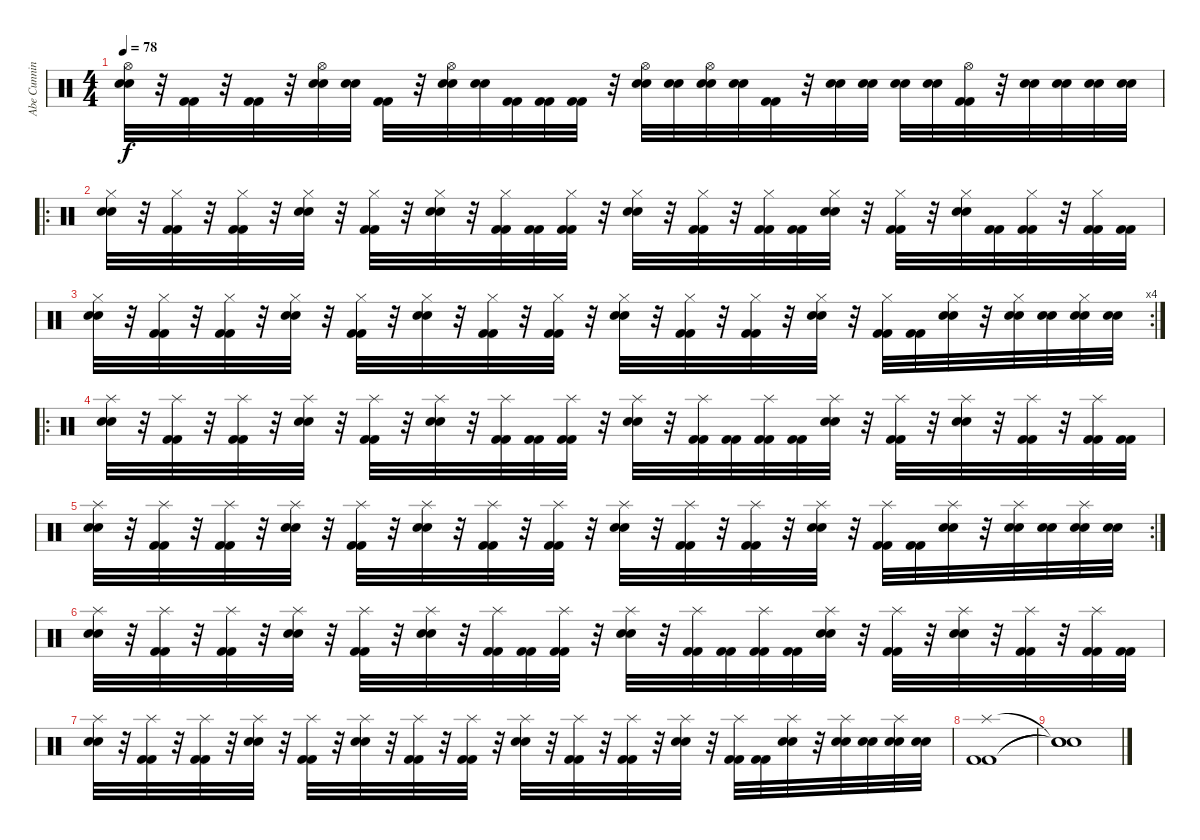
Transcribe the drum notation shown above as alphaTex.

\track ("Abe Cunningham" "Abe Cunnin") {instrument percussion}
\staff {score}
\articulation defaults
\ts (4 4)
\tempo 78
\clef neutral
\ks c
("Hi-Hat (open)" "Electric Snare (hit)" "Electric Snare (hit)").32{dy f} r.32 ("Kick (hit) 2" "Kick (hit) 2").32 r.32 ("Kick (hit) 2" "Kick (hit) 2").32 r.32 ("Hi-Hat (open)" "Electric Snare (hit)" "Electric Snare (hit)").32 ("Electric Snare (hit)" "Electric Snare (hit)").32 ("Kick (hit) 2" "Kick (hit) 2").32 r.32 ("Hi-Hat (open)" "Electric Snare (hit)" "Electric Snare (hit)").32 ("Electric Snare (hit)" "Electric Snare (hit)").32 ("Kick (hit) 2" "Kick (hit) 2").32 ("Kick (hit) 2" "Kick (hit) 2").32 ("Kick (hit) 2" "Kick (hit) 2").32 r.32 ("Hi-Hat (open)" "Electric Snare (hit)" "Electric Snare (hit)").32 ("Electric Snare (hit)" "Electric Snare (hit)").32 ("Hi-Hat (open)" "Electric Snare (hit)" "Electric Snare (hit)").32 ("Electric Snare (hit)" "Electric Snare (hit)").32 ("Kick (hit) 2" "Kick (hit) 2").32 r.32 ("Electric Snare (hit)" "Electric Snare (hit)").32 ("Electric Snare (hit)" "Electric Snare (hit)").32 ("Electric Snare (hit)" "Electric Snare (hit)").32 ("Electric Snare (hit)" "Electric Snare (hit)").32 ("Hi-Hat (open)" "Kick (hit) 2" "Kick (hit) 2").32 r.32 ("Electric Snare (hit)" "Electric Snare (hit)").32 ("Electric Snare (hit)" "Electric Snare (hit)").32 ("Electric Snare (hit)" "Electric Snare (hit)").32 ("Electric Snare (hit)" "Electric Snare (hit)").32 |
\ro
("Hi-Hat (closed)" "Electric Snare (hit)" "Electric Snare (hit)").32 r.32 ("Hi-Hat (closed)" "Kick (hit) 2" "Kick (hit) 2").32 r.32 ("Hi-Hat (closed)" "Kick (hit) 2" "Kick (hit) 2").32 r.32 ("Hi-Hat (closed)" "Electric Snare (hit)" "Electric Snare (hit)").32 r.32 ("Hi-Hat (closed)" "Kick (hit) 2" "Kick (hit) 2").32 r.32 ("Hi-Hat (closed)" "Electric Snare (hit)" "Electric Snare (hit)").32 r.32 ("Hi-Hat (closed)" "Kick (hit) 2" "Kick (hit) 2").32 ("Kick (hit) 2" "Kick (hit) 2").32 ("Hi-Hat (closed)" "Kick (hit) 2" "Kick (hit) 2").32 r.32 ("Hi-Hat (closed)" "Electric Snare (hit)" "Electric Snare (hit)").32 r.32 ("Hi-Hat (closed)" "Kick (hit) 2" "Kick (hit) 2").32 r.32 ("Hi-Hat (closed)" "Kick (hit) 2" "Kick (hit) 2").32 ("Kick (hit) 2" "Kick (hit) 2").32 ("Hi-Hat (closed)" "Electric Snare (hit)" "Electric Snare (hit)").32 r.32 ("Hi-Hat (closed)" "Kick (hit) 2" "Kick (hit) 2").32 r.32 ("Hi-Hat (closed)" "Electric Snare (hit)" "Electric Snare (hit)").32 ("Kick (hit) 2" "Kick (hit) 2").32 ("Hi-Hat (closed)" "Kick (hit) 2" "Kick (hit) 2").32 r.32 ("Hi-Hat (closed)" "Kick (hit) 2" "Kick (hit) 2").32 ("Kick (hit) 2" "Kick (hit) 2").32 |
\rc 4
("Hi-Hat (closed)" "Electric Snare (hit)" "Electric Snare (hit)").32 r.32 ("Hi-Hat (closed)" "Kick (hit) 2" "Kick (hit) 2").32 r.32 ("Hi-Hat (closed)" "Kick (hit) 2" "Kick (hit) 2").32 r.32 ("Hi-Hat (closed)" "Electric Snare (hit)" "Electric Snare (hit)").32 r.32 ("Hi-Hat (closed)" "Kick (hit) 2" "Kick (hit) 2").32 r.32 ("Hi-Hat (closed)" "Electric Snare (hit)" "Electric Snare (hit)").32 r.32 ("Hi-Hat (closed)" "Kick (hit) 2" "Kick (hit) 2").32 r.32 ("Hi-Hat (closed)" "Kick (hit) 2" "Kick (hit) 2").32 r.32 ("Hi-Hat (closed)" "Electric Snare (hit)" "Electric Snare (hit)").32 r.32 ("Hi-Hat (closed)" "Kick (hit) 2" "Kick (hit) 2").32 r.32 ("Hi-Hat (closed)" "Kick (hit) 2" "Kick (hit) 2").32 r.32 ("Hi-Hat (closed)" "Electric Snare (hit)" "Electric Snare (hit)").32 r.32 ("Hi-Hat (closed)" "Kick (hit) 2" "Kick (hit) 2").32 ("Kick (hit) 2" "Kick (hit) 2").32 ("Hi-Hat (closed)" "Electric Snare (hit)" "Electric Snare (hit)").32 r.32 ("Hi-Hat (closed)" "Electric Snare (hit)" "Electric Snare (hit)").32 ("Electric Snare (hit)" "Electric Snare (hit)").32 ("Hi-Hat (closed)" "Electric Snare (hit)" "Electric Snare (hit)").32 ("Electric Snare (hit)" "Electric Snare (hit)").32 |
\ro
("Splash (hit)" "Electric Snare (hit)" "Electric Snare (hit)").32 r.32 ("Splash (hit)" "Kick (hit) 2" "Kick (hit) 2").32 r.32 ("Splash (hit)" "Kick (hit) 2" "Kick (hit) 2").32 r.32 ("Splash (hit)" "Electric Snare (hit)" "Electric Snare (hit)").32 r.32 ("Splash (hit)" "Kick (hit) 2" "Kick (hit) 2").32 r.32 ("Splash (hit)" "Electric Snare (hit)" "Electric Snare (hit)").32 r.32 ("Splash (hit)" "Kick (hit) 2" "Kick (hit) 2").32 ("Kick (hit) 2" "Kick (hit) 2").32 ("Splash (hit)" "Kick (hit) 2" "Kick (hit) 2").32 r.32 ("Splash (hit)" "Electric Snare (hit)" "Electric Snare (hit)").32 r.32 ("Splash (hit)" "Kick (hit) 2" "Kick (hit) 2").32 ("Kick (hit) 2" "Kick (hit) 2").32 ("Splash (hit)" "Kick (hit) 2" "Kick (hit) 2").32 ("Kick (hit) 2" "Kick (hit) 2").32 ("Splash (hit)" "Electric Snare (hit)" "Electric Snare (hit)").32 r.32 ("Splash (hit)" "Kick (hit) 2" "Kick (hit) 2").32 r.32 ("Splash (hit)" "Electric Snare (hit)" "Electric Snare (hit)").32 r.32 ("Splash (hit)" "Kick (hit) 2" "Kick (hit) 2").32 r.32 ("Splash (hit)" "Kick (hit) 2" "Kick (hit) 2").32 ("Kick (hit) 2" "Kick (hit) 2").32 |
\rc 2
("Splash (hit)" "Electric Snare (hit)" "Electric Snare (hit)").32 r.32 ("Splash (hit)" "Kick (hit) 2" "Kick (hit) 2").32 r.32 ("Splash (hit)" "Kick (hit) 2" "Kick (hit) 2").32 r.32 ("Splash (hit)" "Electric Snare (hit)" "Electric Snare (hit)").32 r.32 ("Splash (hit)" "Kick (hit) 2" "Kick (hit) 2").32 r.32 ("Splash (hit)" "Electric Snare (hit)" "Electric Snare (hit)").32 r.32 ("Splash (hit)" "Kick (hit) 2" "Kick (hit) 2").32 r.32 ("Splash (hit)" "Kick (hit) 2" "Kick (hit) 2").32 r.32 ("Splash (hit)" "Electric Snare (hit)" "Electric Snare (hit)").32 r.32 ("Splash (hit)" "Kick (hit) 2" "Kick (hit) 2").32 r.32 ("Splash (hit)" "Kick (hit) 2" "Kick (hit) 2").32 r.32 ("Splash (hit)" "Electric Snare (hit)" "Electric Snare (hit)").32 r.32 ("Splash (hit)" "Kick (hit) 2" "Kick (hit) 2").32 ("Kick (hit) 2" "Kick (hit) 2").32 ("Splash (hit)" "Electric Snare (hit)" "Electric Snare (hit)").32 r.32 ("Splash (hit)" "Electric Snare (hit)" "Electric Snare (hit)").32 ("Electric Snare (hit)" "Electric Snare (hit)").32 ("Splash (hit)" "Electric Snare (hit)" "Electric Snare (hit)").32 ("Electric Snare (hit)" "Electric Snare (hit)").32 |
("Splash (hit)" "Electric Snare (hit)" "Electric Snare (hit)").32 r.32 ("Splash (hit)" "Kick (hit) 2" "Kick (hit) 2").32 r.32 ("Splash (hit)" "Kick (hit) 2" "Kick (hit) 2").32 r.32 ("Splash (hit)" "Electric Snare (hit)" "Electric Snare (hit)").32 r.32 ("Splash (hit)" "Kick (hit) 2" "Kick (hit) 2").32 r.32 ("Splash (hit)" "Electric Snare (hit)" "Electric Snare (hit)").32 r.32 ("Splash (hit)" "Kick (hit) 2" "Kick (hit) 2").32 ("Kick (hit) 2" "Kick (hit) 2").32 ("Splash (hit)" "Kick (hit) 2" "Kick (hit) 2").32 r.32 ("Splash (hit)" "Electric Snare (hit)" "Electric Snare (hit)").32 r.32 ("Splash (hit)" "Kick (hit) 2" "Kick (hit) 2").32 ("Kick (hit) 2" "Kick (hit) 2").32 ("Splash (hit)" "Kick (hit) 2" "Kick (hit) 2").32 ("Kick (hit) 2" "Kick (hit) 2").32 ("Splash (hit)" "Electric Snare (hit)" "Electric Snare (hit)").32 r.32 ("Splash (hit)" "Kick (hit) 2" "Kick (hit) 2").32 r.32 ("Splash (hit)" "Electric Snare (hit)" "Electric Snare (hit)").32 r.32 ("Splash (hit)" "Kick (hit) 2" "Kick (hit) 2").32 r.32 ("Splash (hit)" "Kick (hit) 2" "Kick (hit) 2").32 ("Kick (hit) 2" "Kick (hit) 2").32 |
("Splash (hit)" "Electric Snare (hit)" "Electric Snare (hit)").32 r.32 ("Splash (hit)" "Kick (hit) 2" "Kick (hit) 2").32 r.32 ("Splash (hit)" "Kick (hit) 2" "Kick (hit) 2").32 r.32 ("Splash (hit)" "Electric Snare (hit)" "Electric Snare (hit)").32 r.32 ("Splash (hit)" "Kick (hit) 2" "Kick (hit) 2").32 r.32 ("Splash (hit)" "Electric Snare (hit)" "Electric Snare (hit)").32 r.32 ("Splash (hit)" "Kick (hit) 2" "Kick (hit) 2").32 r.32 ("Splash (hit)" "Kick (hit) 2" "Kick (hit) 2").32 r.32 ("Splash (hit)" "Electric Snare (hit)" "Electric Snare (hit)").32 r.32 ("Splash (hit)" "Kick (hit) 2" "Kick (hit) 2").32 r.32 ("Splash (hit)" "Kick (hit) 2" "Kick (hit) 2").32 r.32 ("Splash (hit)" "Electric Snare (hit)" "Electric Snare (hit)").32 r.32 ("Splash (hit)" "Kick (hit) 2" "Kick (hit) 2").32 ("Kick (hit) 2" "Kick (hit) 2").32 ("Splash (hit)" "Electric Snare (hit)" "Electric Snare (hit)").32 r.32 ("Splash (hit)" "Electric Snare (hit)" "Electric Snare (hit)").32 ("Electric Snare (hit)" "Electric Snare (hit)").32 ("Splash (hit)" "Electric Snare (hit)" "Electric Snare (hit)").32 ("Electric Snare (hit)" "Electric Snare (hit)").32 |
("Splash (hit)" "Kick (hit) 2" "Kick (hit) 2").1 |
("Snare (hit)"{t} "Snare (hit)"{t} "Snare (hit)"{t}).1
